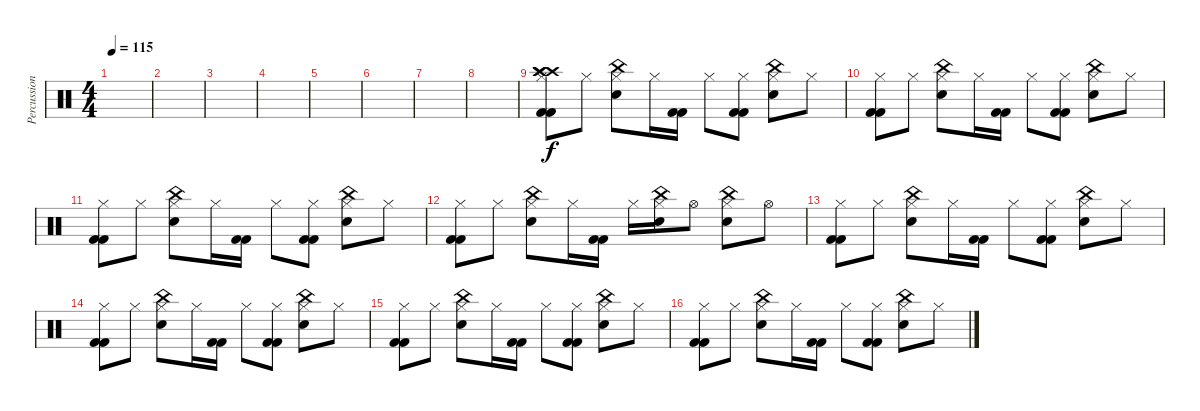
\track ("Percussion" "Percussion") {instrument percussion}
\staff {score}
\articulation defaults
\ts (4 4)
\tempo 115
\clef neutral
\ks c
|
|
|
|
|
|
|
|
("Hi-Hat (closed)" "Kick (hit) 2" "Kick (hit) 2" "Crash high (hit)" "Crash high (hit)" "Crash high (hit)").8 "Hi-Hat (closed)".8 ("Hi-Hat (closed)" "Electric Snare (hit)" "China (hit)").8 "Hi-Hat (closed)".16 ("Kick (hit) 2" "Kick (hit) 2").16 "Hi-Hat (closed)".8 ("Hi-Hat (closed)" "Kick (hit) 2" "Kick (hit) 2").8 ("Hi-Hat (closed)" "Electric Snare (hit)" "China (hit)").8 "Hi-Hat (closed)".8 |
("Hi-Hat (closed)" "Kick (hit) 2" "Kick (hit) 2").8 "Hi-Hat (closed)".8 ("Hi-Hat (closed)" "Electric Snare (hit)" "China (hit)").8 "Hi-Hat (closed)".16 ("Kick (hit) 2" "Kick (hit) 2").16 "Hi-Hat (closed)".8 ("Hi-Hat (closed)" "Kick (hit) 2" "Kick (hit) 2").8 ("Hi-Hat (closed)" "Electric Snare (hit)" "China (hit)").8 "Hi-Hat (closed)".8 |
("Hi-Hat (closed)" "Kick (hit) 2" "Kick (hit) 2").8 "Hi-Hat (closed)".8 ("Hi-Hat (closed)" "Electric Snare (hit)" "China (hit)").8 "Hi-Hat (closed)".16 ("Kick (hit) 2" "Kick (hit) 2").16 "Hi-Hat (closed)".8 ("Hi-Hat (closed)" "Kick (hit) 2" "Kick (hit) 2").8 ("Hi-Hat (closed)" "Electric Snare (hit)" "China (hit)").8 "Hi-Hat (closed)".8 |
("Hi-Hat (closed)" "Kick (hit) 2" "Kick (hit) 2").8 "Hi-Hat (closed)".8 ("Hi-Hat (closed)" "Electric Snare (hit)" "China (hit)").8 "Hi-Hat (closed)".16 ("Kick (hit) 2" "Kick (hit) 2").16 "Hi-Hat (closed)".16 ("Hi-Hat (closed)" "Electric Snare (hit)" "China (hit)").16 "Hi-Hat (open)".8 ("Hi-Hat (closed)" "Electric Snare (hit)" "China (hit)").8 "Hi-Hat (open)".8 |
("Hi-Hat (closed)" "Kick (hit) 2" "Kick (hit) 2").8 "Hi-Hat (closed)".8 ("Hi-Hat (closed)" "Electric Snare (hit)" "China (hit)").8 "Hi-Hat (closed)".16 ("Kick (hit) 2" "Kick (hit) 2").16 "Hi-Hat (closed)".8 ("Hi-Hat (closed)" "Kick (hit) 2" "Kick (hit) 2").8 ("Hi-Hat (closed)" "Electric Snare (hit)" "China (hit)").8 "Hi-Hat (closed)".8 |
("Hi-Hat (closed)" "Kick (hit) 2" "Kick (hit) 2").8 "Hi-Hat (closed)".8 ("Hi-Hat (closed)" "Electric Snare (hit)" "China (hit)").8 "Hi-Hat (closed)".16 ("Kick (hit) 2" "Kick (hit) 2").16 "Hi-Hat (closed)".8 ("Hi-Hat (closed)" "Kick (hit) 2" "Kick (hit) 2").8 ("Hi-Hat (closed)" "Electric Snare (hit)" "China (hit)").8 "Hi-Hat (closed)".8 |
("Hi-Hat (closed)" "Kick (hit) 2" "Kick (hit) 2").8 "Hi-Hat (closed)".8 ("Hi-Hat (closed)" "Electric Snare (hit)" "China (hit)").8 "Hi-Hat (closed)".16 ("Kick (hit) 2" "Kick (hit) 2").16 "Hi-Hat (closed)".8 ("Hi-Hat (closed)" "Kick (hit) 2" "Kick (hit) 2").8 ("Hi-Hat (closed)" "Electric Snare (hit)" "China (hit)").8 "Hi-Hat (closed)".8 |
("Hi-Hat (closed)" "Kick (hit) 2" "Kick (hit) 2").8 "Hi-Hat (closed)".8 ("Hi-Hat (closed)" "Electric Snare (hit)" "China (hit)").8 "Hi-Hat (closed)".16 ("Kick (hit) 2" "Kick (hit) 2").16 "Hi-Hat (closed)".8 ("Hi-Hat (closed)" "Kick (hit) 2" "Kick (hit) 2").8 ("Hi-Hat (closed)" "Electric Snare (hit)" "China (hit)").8 "Hi-Hat (closed)".8
